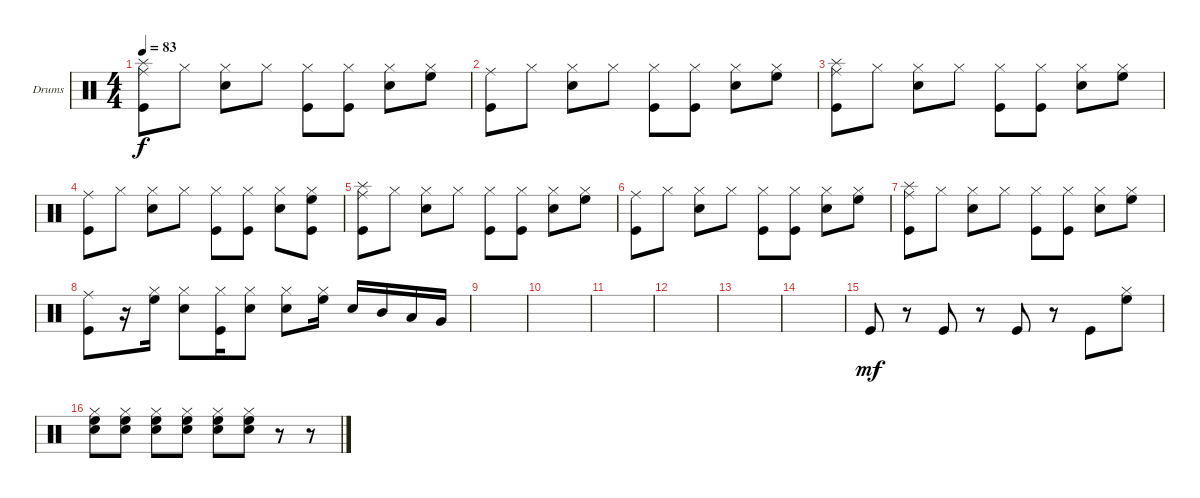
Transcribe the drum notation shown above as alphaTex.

\defaultSystemsLayout 4
\bracketExtendMode groupsimilarinstruments
\firstSystemTrackNameOrientation horizontal
\otherSystemsTrackNameOrientation horizontal
\track ("Reza" "Drums") {instrument percussion}
\staff {score}
\articulation defaults
\ts (4 4)
\tempo 83
\clef neutral
\ks c
("Kick (hit)" "Splash (hit)" "Ride (middle)").8{dy f} "Hi-Hat (closed)".8 ("Hi-Hat (closed)" "Snare (hit) 2").8 "Hi-Hat (closed)".8 ("Hi-Hat (closed)" "Kick (hit)").8 ("Hi-Hat (closed)" "Kick (hit)").8 ("Hi-Hat (closed)" "Snare (hit) 2").8 ("Hi-Hat (closed)" "High Floor Tom (hit)").8 |
("Kick (hit)" "Ride (middle)").8 "Hi-Hat (closed)".8 ("Hi-Hat (closed)" "Snare (hit) 2").8 "Hi-Hat (closed)".8 ("Hi-Hat (closed)" "Kick (hit)").8 ("Hi-Hat (closed)" "Kick (hit)").8 ("Hi-Hat (closed)" "Snare (hit) 2").8 ("Hi-Hat (closed)" "High Floor Tom (hit)").8 |
("Kick (hit)" "Splash (hit)" "Ride (middle)").8 "Hi-Hat (closed)".8 ("Hi-Hat (closed)" "Snare (hit) 2").8 "Hi-Hat (closed)".8 ("Hi-Hat (closed)" "Kick (hit)").8 ("Hi-Hat (closed)" "Kick (hit)").8 ("Hi-Hat (closed)" "Snare (hit) 2").8 ("Hi-Hat (closed)" "High Floor Tom (hit)").8 |
("Kick (hit)" "Ride (middle)").8 "Hi-Hat (closed)".8 ("Hi-Hat (closed)" "Snare (hit) 2").8 "Hi-Hat (closed)".8 ("Hi-Hat (closed)" "Kick (hit)").8 ("Hi-Hat (closed)" "Kick (hit)").8 ("Hi-Hat (closed)" "Snare (hit) 2").8 ("Hi-Hat (closed)" "High Floor Tom (hit)" "Kick (hit)").8 |
("Kick (hit)" "Splash (hit)" "Ride (middle)").8 "Hi-Hat (closed)".8 ("Hi-Hat (closed)" "Snare (hit) 2").8 "Hi-Hat (closed)".8 ("Hi-Hat (closed)" "Kick (hit)").8 ("Hi-Hat (closed)" "Kick (hit)").8 ("Hi-Hat (closed)" "Snare (hit) 2").8 ("Hi-Hat (closed)" "High Floor Tom (hit)").8 |
("Kick (hit)" "Ride (middle)").8 "Hi-Hat (closed)".8 ("Hi-Hat (closed)" "Snare (hit) 2").8 "Hi-Hat (closed)".8 ("Hi-Hat (closed)" "Kick (hit)").8 ("Hi-Hat (closed)" "Kick (hit)").8 ("Hi-Hat (closed)" "Snare (hit) 2").8 ("Hi-Hat (closed)" "High Floor Tom (hit)").8 |
("Kick (hit)" "Splash (hit)" "Ride (middle)").8 "Hi-Hat (closed)".8 ("Hi-Hat (closed)" "Snare (hit) 2").8 "Hi-Hat (closed)".8 ("Hi-Hat (closed)" "Kick (hit)").8 ("Hi-Hat (closed)" "Kick (hit)").8 ("Hi-Hat (closed)" "Snare (hit) 2").8 ("Hi-Hat (closed)" "High Floor Tom (hit)").8 |
("Kick (hit)" "Ride (middle)").8 r.16 ("Hi-Hat (closed)" "High Floor Tom (hit)").16 ("Hi-Hat (closed)" "Snare (hit) 2").8 ("Hi-Hat (closed)" "Kick (hit)").16 ("Hi-Hat (closed)" "Snare (hit) 2").8 ("Hi-Hat (closed)" "Snare (hit) 2").8 ("Hi-Hat (closed)" "High Floor Tom (hit)").16 "Snare (hit) 2".16 "Mid Tom (hit)".16 "Low Tom (hit)".16 "Very Low Tom (hit)".16 |
|
|
|
|
|
|
"Kick (hit)".8{dy mf} r.8 "Kick (hit)".8 r.8 "Kick (hit)".8 r.8 "Kick (hit)".8 ("High Floor Tom (hit)" "Hi-Hat (closed)").8 |
("High Floor Tom (hit)" "Snare (hit) 2" "Hi-Hat (closed)").8 ("High Floor Tom (hit)" "Snare (hit) 2" "Hi-Hat (closed)").8 ("High Floor Tom (hit)" "Snare (hit) 2" "Hi-Hat (closed)").8 ("High Floor Tom (hit)" "Snare (hit) 2" "Hi-Hat (closed)").8 ("High Floor Tom (hit)" "Snare (hit) 2" "Hi-Hat (closed)").8 ("High Floor Tom (hit)" "Snare (hit) 2" "Hi-Hat (closed)").8 r.8 r.8
